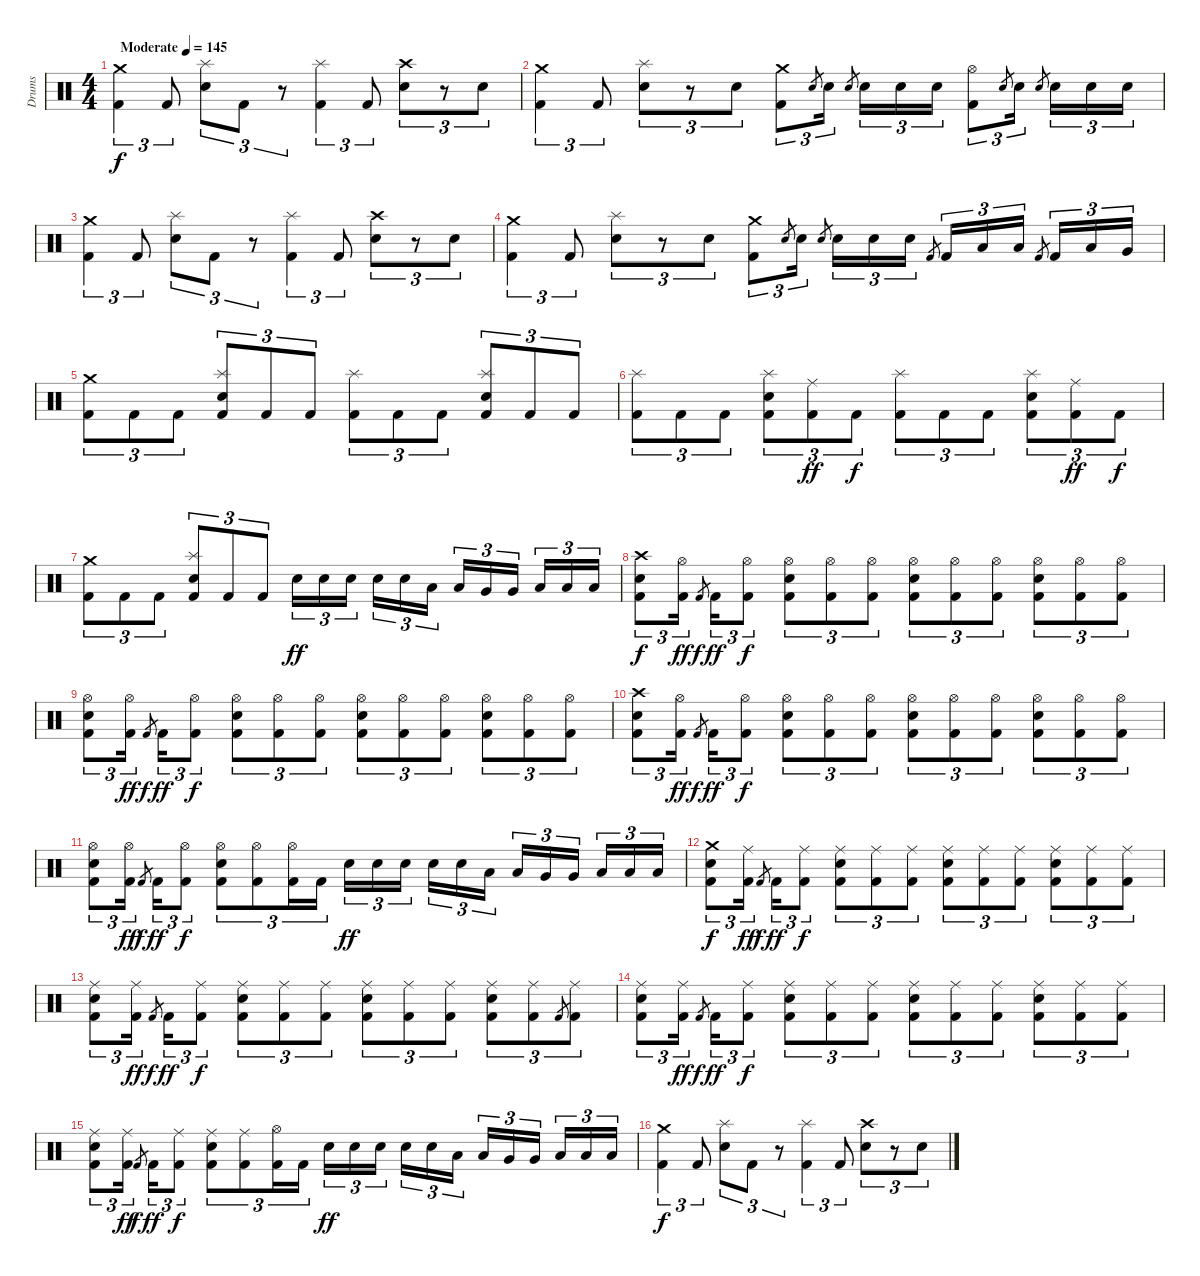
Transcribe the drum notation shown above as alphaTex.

\track ("Drums" "Drums") {instrument percussion}
\staff {score}
\articulation defaults
\ts (4 4)
\tempo (145 "Moderate")
\clef neutral
\ks c
("Crash medium (hit)" "Kick (hit) 2").4{tu (3 2) dy f} "Kick (hit) 2".8{tu (3 2)} ("Splash (hit)" "Electric Snare (hit)").8{tu (3 2)} "Kick (hit) 2".8{tu (3 2)} r.8{tu (3 2)} ("Splash (hit)" "Kick (hit) 2").4{tu (3 2)} "Kick (hit) 2".8{tu (3 2)} ("Crash high (hit)" "Electric Snare (hit)").8{tu (3 2)} r.8{tu (3 2)} "Electric Snare (hit)".8{tu (3 2)} |
("Crash medium (hit)" "Kick (hit) 2").4{tu (3 2)} "Kick (hit) 2".8{tu (3 2)} ("Splash (hit)" "Electric Snare (hit)").8{tu (3 2)} r.8{tu (3 2)} "Electric Snare (hit)".8{tu (3 2)} ("Crash medium (hit)" "Kick (hit) 2").8{tu (3 2)} "Electric Snare (hit)".8{gr} "Electric Snare (hit)".16{tu (3 2)} "Electric Snare (hit)".8{gr beam splitsecondary} "Electric Snare (hit)".16{tu (3 2)} "Electric Snare (hit)".16{tu (3 2)} "Electric Snare (hit)".16{tu (3 2)} ("Hi-Hat (open)" "Kick (hit) 2").8{tu (3 2)} "Electric Snare (hit)".8{gr} "Electric Snare (hit)".16{tu (3 2)} "Electric Snare (hit)".8{gr beam splitsecondary} "Electric Snare (hit)".16{tu (3 2)} "Electric Snare (hit)".16{tu (3 2)} "Electric Snare (hit)".16{tu (3 2)} |
("Crash medium (hit)" "Kick (hit) 2").4{tu (3 2)} "Kick (hit) 2".8{tu (3 2)} ("Splash (hit)" "Electric Snare (hit)").8{tu (3 2)} "Kick (hit) 2".8{tu (3 2)} r.8{tu (3 2)} ("Splash (hit)" "Kick (hit) 2").4{tu (3 2)} "Kick (hit) 2".8{tu (3 2)} ("Crash high (hit)" "Electric Snare (hit)").8{tu (3 2)} r.8{tu (3 2)} "Electric Snare (hit)".8{tu (3 2)} |
("Crash medium (hit)" "Kick (hit) 2").4{tu (3 2)} "Kick (hit) 2".8{tu (3 2)} ("Splash (hit)" "Electric Snare (hit)").8{tu (3 2)} r.8{tu (3 2)} "Electric Snare (hit)".8{tu (3 2)} ("Crash medium (hit)" "Kick (hit) 2").8{tu (3 2)} "Electric Snare (hit)".8{gr} "Electric Snare (hit)".16{tu (3 2)} "Electric Snare (hit)".8{gr beam splitsecondary} "Electric Snare (hit)".16{tu (3 2)} "Electric Snare (hit)".16{tu (3 2)} "Electric Snare (hit)".16{tu (3 2)} "Kick (hit) 2".8{gr} "Kick (hit) 2".16{tu (3 2)} "Low Tom (hit)".16{tu (3 2)} "Low Tom (hit)".16{tu (3 2)} "Kick (hit) 2".8{gr beam splitsecondary} "Kick (hit) 2".16{tu (3 2)} "Low Tom (hit)".16{tu (3 2)} "Very Low Tom (hit)".16{tu (3 2)} |
("Crash medium (hit)" "Kick (hit) 2").8{tu (3 2)} "Kick (hit) 2".8{tu (3 2)} "Kick (hit) 2".8{tu (3 2)} ("Splash (hit)" "Electric Snare (hit)" "Kick (hit) 2").8{tu (3 2)} "Kick (hit) 2".8{tu (3 2)} "Kick (hit) 2".8{tu (3 2)} ("Splash (hit)" "Kick (hit) 2").8{tu (3 2)} "Kick (hit) 2".8{tu (3 2)} "Kick (hit) 2".8{tu (3 2)} ("Splash (hit)" "Electric Snare (hit)" "Kick (hit) 2").8{tu (3 2)} "Kick (hit) 2".8{tu (3 2)} "Kick (hit) 2".8{tu (3 2)} |
("Splash (hit)" "Kick (hit) 2").8{tu (3 2)} "Kick (hit) 2".8{tu (3 2)} "Kick (hit) 2".8{tu (3 2)} ("Splash (hit)" "Electric Snare (hit)" "Kick (hit) 2").8{tu (3 2)} ("Ride (middle)" "Kick (hit) 2").8{tu (3 2) dy ff} "Kick (hit) 2".8{tu (3 2) dy f} ("Splash (hit)" "Kick (hit) 2").8{tu (3 2)} "Kick (hit) 2".8{tu (3 2)} "Kick (hit) 2".8{tu (3 2)} ("Splash (hit)" "Electric Snare (hit)" "Kick (hit) 2").8{tu (3 2)} ("Ride (middle)" "Kick (hit) 2").8{tu (3 2) dy ff} "Kick (hit) 2".8{tu (3 2) dy f} |
("Crash medium (hit)" "Kick (hit) 2").8{tu (3 2)} "Kick (hit) 2".8{tu (3 2)} "Kick (hit) 2".8{tu (3 2)} ("Splash (hit)" "Electric Snare (hit)" "Kick (hit) 2").8{tu (3 2)} "Kick (hit) 2".8{tu (3 2)} "Kick (hit) 2".8{tu (3 2)} "Electric Snare (hit)".16{tu (3 2) dy ff} "Electric Snare (hit)".16{tu (3 2)} "Electric Snare (hit)".16{tu (3 2) beam splitsecondary} "Electric Snare (hit)".16{tu (3 2)} "Electric Snare (hit)".16{tu (3 2)} "Low Tom (hit)".16{tu (3 2)} "Low Tom (hit)".16{tu (3 2)} "Very Low Tom (hit)".16{tu (3 2)} "Very Low Tom (hit)".16{tu (3 2) beam splitsecondary} "Low Floor Tom (hit)".16{tu (3 2)} "Low Floor Tom (hit)".16{tu (3 2)} "Low Floor Tom (hit)".16{tu (3 2)} |
("Crash high (hit)" "Electric Snare (hit)" "Kick (hit) 2").8{tu (3 2) dy f} ("Hi-Hat (open)" "Kick (hit) 2").16{tu (3 2) dy ff} "Kick (hit) 2".8{gr dy f beam splitsecondary} "Kick (hit) 2".16{tu (3 2) dy ff} ("Hi-Hat (open)" "Kick (hit) 2").8{tu (3 2) dy f} ("Hi-Hat (open)" "Electric Snare (hit)" "Kick (hit) 2").8{tu (3 2)} ("Hi-Hat (open)" "Kick (hit) 2").8{tu (3 2)} ("Hi-Hat (open)" "Kick (hit) 2").8{tu (3 2)} ("Hi-Hat (open)" "Electric Snare (hit)" "Kick (hit) 2").8{tu (3 2)} ("Hi-Hat (open)" "Kick (hit) 2").8{tu (3 2)} ("Hi-Hat (open)" "Kick (hit) 2").8{tu (3 2)} ("Hi-Hat (open)" "Electric Snare (hit)" "Kick (hit) 2").8{tu (3 2)} ("Hi-Hat (open)" "Kick (hit) 2").8{tu (3 2)} ("Hi-Hat (open)" "Kick (hit) 2").8{tu (3 2)} |
("Hi-Hat (open)" "Electric Snare (hit)" "Kick (hit) 2").8{tu (3 2)} ("Hi-Hat (open)" "Kick (hit) 2").16{tu (3 2) dy ff} "Kick (hit) 2".8{gr dy f beam splitsecondary} "Kick (hit) 2".16{tu (3 2) dy ff} ("Hi-Hat (open)" "Kick (hit) 2").8{tu (3 2) dy f} ("Hi-Hat (open)" "Electric Snare (hit)" "Kick (hit) 2").8{tu (3 2)} ("Hi-Hat (open)" "Kick (hit) 2").8{tu (3 2)} ("Hi-Hat (open)" "Kick (hit) 2").8{tu (3 2)} ("Hi-Hat (open)" "Electric Snare (hit)" "Kick (hit) 2").8{tu (3 2)} ("Hi-Hat (open)" "Kick (hit) 2").8{tu (3 2)} ("Hi-Hat (open)" "Kick (hit) 2").8{tu (3 2)} ("Hi-Hat (open)" "Electric Snare (hit)" "Kick (hit) 2").8{tu (3 2)} ("Hi-Hat (open)" "Kick (hit) 2").8{tu (3 2)} ("Hi-Hat (open)" "Kick (hit) 2").8{tu (3 2)} |
("Crash high (hit)" "Electric Snare (hit)" "Kick (hit) 2").8{tu (3 2)} ("Hi-Hat (open)" "Kick (hit) 2").16{tu (3 2) dy ff} "Kick (hit) 2".8{gr dy f beam splitsecondary} "Kick (hit) 2".16{tu (3 2) dy ff} ("Hi-Hat (open)" "Kick (hit) 2").8{tu (3 2) dy f} ("Hi-Hat (open)" "Electric Snare (hit)" "Kick (hit) 2").8{tu (3 2)} ("Hi-Hat (open)" "Kick (hit) 2").8{tu (3 2)} ("Hi-Hat (open)" "Kick (hit) 2").8{tu (3 2)} ("Hi-Hat (open)" "Electric Snare (hit)" "Kick (hit) 2").8{tu (3 2)} ("Hi-Hat (open)" "Kick (hit) 2").8{tu (3 2)} ("Hi-Hat (open)" "Kick (hit) 2").8{tu (3 2)} ("Hi-Hat (open)" "Electric Snare (hit)" "Kick (hit) 2").8{tu (3 2)} ("Hi-Hat (open)" "Kick (hit) 2").8{tu (3 2)} ("Hi-Hat (open)" "Kick (hit) 2").8{tu (3 2)} |
("Hi-Hat (open)" "Electric Snare (hit)" "Kick (hit) 2").8{tu (3 2)} ("Hi-Hat (open)" "Kick (hit) 2").16{tu (3 2) dy ff} "Kick (hit) 2".8{gr dy f beam splitsecondary} "Kick (hit) 2".16{tu (3 2) dy ff} ("Hi-Hat (open)" "Kick (hit) 2").8{tu (3 2) dy f} ("Hi-Hat (open)" "Electric Snare (hit)" "Kick (hit) 2").8{tu (3 2)} ("Hi-Hat (open)" "Kick (hit) 2").8{tu (3 2)} ("Hi-Hat (open)" "Kick (hit) 2").16{tu (3 2)} "Kick (hit) 2".16{tu (3 2)} "Electric Snare (hit)".16{tu (3 2) dy ff} "Electric Snare (hit)".16{tu (3 2)} "Electric Snare (hit)".16{tu (3 2) beam splitsecondary} "Electric Snare (hit)".16{tu (3 2)} "Electric Snare (hit)".16{tu (3 2)} "Low Tom (hit)".16{tu (3 2)} "Low Tom (hit)".16{tu (3 2)} "Very Low Tom (hit)".16{tu (3 2)} "Very Low Tom (hit)".16{tu (3 2) beam splitsecondary} "Low Floor Tom (hit)".16{tu (3 2)} "Low Floor Tom (hit)".16{tu (3 2)} "Low Floor Tom (hit)".16{tu (3 2)} |
("Crash medium (hit)" "Electric Snare (hit)" "Kick (hit) 2").8{tu (3 2) dy f} ("Ride (middle)" "Kick (hit) 2").16{tu (3 2) dy ff} "Kick (hit) 2".8{gr dy f beam splitsecondary} "Kick (hit) 2".16{tu (3 2) dy ff} ("Ride (middle)" "Kick (hit) 2").8{tu (3 2) dy f} ("Ride (middle)" "Electric Snare (hit)" "Kick (hit) 2").8{tu (3 2)} ("Ride (middle)" "Kick (hit) 2").8{tu (3 2)} ("Ride (middle)" "Kick (hit) 2").8{tu (3 2)} ("Ride (middle)" "Electric Snare (hit)" "Kick (hit) 2").8{tu (3 2)} ("Ride (middle)" "Kick (hit) 2").8{tu (3 2)} ("Ride (middle)" "Kick (hit) 2").8{tu (3 2)} ("Ride (middle)" "Electric Snare (hit)" "Kick (hit) 2").8{tu (3 2)} ("Ride (middle)" "Kick (hit) 2").8{tu (3 2)} ("Ride (middle)" "Kick (hit) 2").8{tu (3 2)} |
("Ride (middle)" "Electric Snare (hit)" "Kick (hit) 2").8{tu (3 2)} ("Ride (middle)" "Kick (hit) 2").16{tu (3 2) dy ff} "Kick (hit) 2".8{gr dy f beam splitsecondary} "Kick (hit) 2".16{tu (3 2) dy ff} ("Ride (middle)" "Kick (hit) 2").8{tu (3 2) dy f} ("Ride (middle)" "Electric Snare (hit)" "Kick (hit) 2").8{tu (3 2)} ("Ride (middle)" "Kick (hit) 2").8{tu (3 2)} ("Ride (middle)" "Kick (hit) 2").8{tu (3 2)} ("Ride (middle)" "Electric Snare (hit)" "Kick (hit) 2").8{tu (3 2)} ("Ride (middle)" "Kick (hit) 2").8{tu (3 2)} ("Ride (middle)" "Kick (hit) 2").8{tu (3 2)} ("Ride (middle)" "Electric Snare (hit)" "Kick (hit) 2").8{tu (3 2)} ("Ride (middle)" "Kick (hit) 2").8{tu (3 2)} "Kick (hit) 2".8{gr} ("Ride (middle)" "Kick (hit) 2").8{tu (3 2)} |
("Ride (middle)" "Electric Snare (hit)" "Kick (hit) 2").8{tu (3 2)} ("Ride (middle)" "Kick (hit) 2").16{tu (3 2) dy ff} "Kick (hit) 2".8{gr dy f beam splitsecondary} "Kick (hit) 2".16{tu (3 2) dy ff} ("Ride (middle)" "Kick (hit) 2").8{tu (3 2) dy f} ("Ride (middle)" "Electric Snare (hit)" "Kick (hit) 2").8{tu (3 2)} ("Ride (middle)" "Kick (hit) 2").8{tu (3 2)} ("Ride (middle)" "Kick (hit) 2").8{tu (3 2)} ("Ride (middle)" "Electric Snare (hit)" "Kick (hit) 2").8{tu (3 2)} ("Ride (middle)" "Kick (hit) 2").8{tu (3 2)} ("Ride (middle)" "Kick (hit) 2").8{tu (3 2)} ("Ride (middle)" "Electric Snare (hit)" "Kick (hit) 2").8{tu (3 2)} ("Ride (middle)" "Kick (hit) 2").8{tu (3 2)} ("Ride (middle)" "Kick (hit) 2").8{tu (3 2)} |
("Ride (middle)" "Electric Snare (hit)" "Kick (hit) 2").8{tu (3 2)} ("Ride (middle)" "Kick (hit) 2").16{tu (3 2) dy ff} "Kick (hit) 2".8{gr dy f beam splitsecondary} "Kick (hit) 2".16{tu (3 2) dy ff} ("Ride (middle)" "Kick (hit) 2").8{tu (3 2) dy f} ("Ride (middle)" "Electric Snare (hit)" "Kick (hit) 2").8{tu (3 2)} ("Ride (middle)" "Kick (hit) 2").8{tu (3 2)} ("Hi-Hat (open)" "Kick (hit) 2").16{tu (3 2)} "Kick (hit) 2".16{tu (3 2)} "Electric Snare (hit)".16{tu (3 2) dy ff} "Electric Snare (hit)".16{tu (3 2)} "Electric Snare (hit)".16{tu (3 2) beam splitsecondary} "Electric Snare (hit)".16{tu (3 2)} "Electric Snare (hit)".16{tu (3 2)} "Low Tom (hit)".16{tu (3 2)} "Low Tom (hit)".16{tu (3 2)} "Very Low Tom (hit)".16{tu (3 2)} "Very Low Tom (hit)".16{tu (3 2) beam splitsecondary} "Low Floor Tom (hit)".16{tu (3 2)} "Low Floor Tom (hit)".16{tu (3 2)} "Low Floor Tom (hit)".16{tu (3 2)} |
("Crash medium (hit)" "Kick (hit) 2").4{tu (3 2) dy f} "Kick (hit) 2".8{tu (3 2)} ("Splash (hit)" "Electric Snare (hit)").8{tu (3 2)} "Kick (hit) 2".8{tu (3 2)} r.8{tu (3 2)} ("Splash (hit)" "Kick (hit) 2").4{tu (3 2)} "Kick (hit) 2".8{tu (3 2)} ("Crash high (hit)" "Electric Snare (hit)").8{tu (3 2)} r.8{tu (3 2)} "Electric Snare (hit)".8{tu (3 2)}
